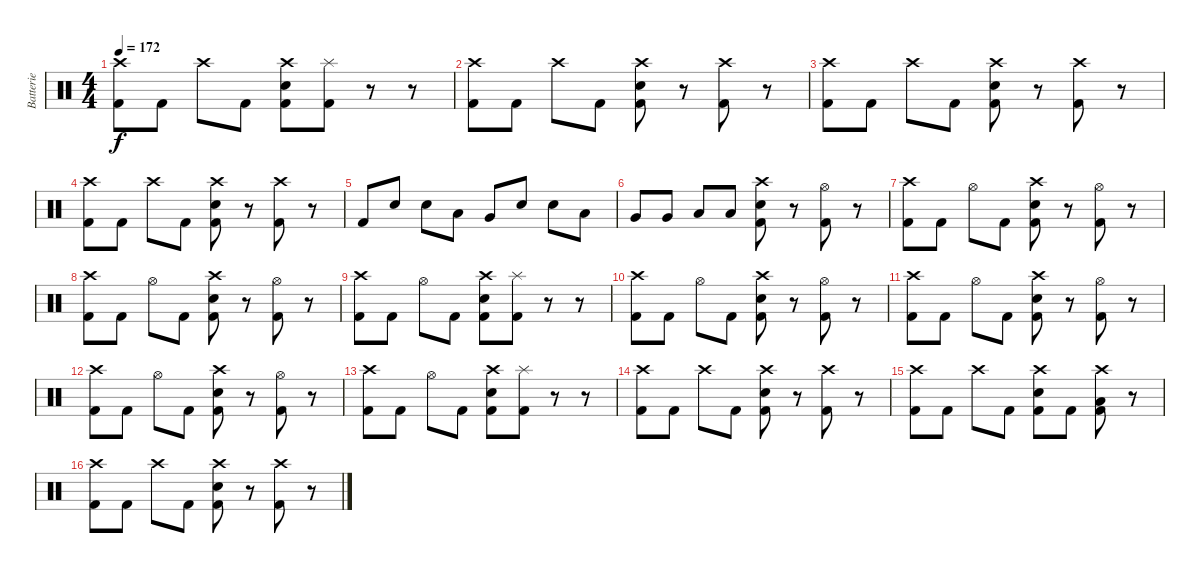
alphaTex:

\track ("Batterie" "Batterie") {instrument percussion}
\staff {score}
\articulation defaults
\ts (4 4)
\tempo 172
\clef neutral
\ks c
("Crash high (hit)" "Kick (hit) 2").8{dy f} "Kick (hit) 2".8 "Crash high (hit)".8 "Kick (hit) 2".8 ("Crash high (hit)" "Electric Snare (hit)" "Kick (hit) 2").8 ("Splash (hit)" "Kick (hit) 2").8 r.8 r.8 |
("Crash high (hit)" "Kick (hit) 2").8 "Kick (hit) 2".8 "Crash high (hit)".8 "Kick (hit) 2".8 ("Crash high (hit)" "Electric Snare (hit)" "Kick (hit) 2").8 r.8 ("Crash high (hit)" "Kick (hit) 2").8 r.8 |
("Crash high (hit)" "Kick (hit) 2").8 "Kick (hit) 2".8 "Crash high (hit)".8 "Kick (hit) 2".8 ("Crash high (hit)" "Electric Snare (hit)" "Kick (hit) 2").8 r.8 ("Crash high (hit)" "Kick (hit) 2").8 r.8 |
("Crash high (hit)" "Kick (hit) 2").8 "Kick (hit) 2".8 "Crash high (hit)".8 "Kick (hit) 2".8 ("Crash high (hit)" "Electric Snare (hit)" "Kick (hit) 2").8 r.8 ("Crash high (hit)" "Kick (hit) 2").8 r.8 |
"Kick (hit) 2".8 "Electric Snare (hit)".8 "Electric Snare (hit)".8 "Low Tom (hit)".8 "Very Low Tom (hit)".8 "Electric Snare (hit)".8 "Electric Snare (hit)".8 "Low Tom (hit)".8 |
"Very Low Tom (hit)".8 "Very Low Tom (hit)".8 "Low Floor Tom (hit)".8 "Low Floor Tom (hit)".8 ("Crash high (hit)" "Electric Snare (hit)" "Kick (hit) 2").8 r.8 ("Hi-Hat (open)" "Kick (hit) 2").8 r.8 |
("Crash high (hit)" "Kick (hit) 2").8 "Kick (hit) 2".8 "Hi-Hat (open)".8 "Kick (hit) 2".8 ("Crash high (hit)" "Electric Snare (hit)" "Kick (hit) 2").8 r.8 ("Hi-Hat (open)" "Kick (hit) 2").8 r.8 |
("Crash high (hit)" "Kick (hit) 2").8 "Kick (hit) 2".8 "Hi-Hat (open)".8 "Kick (hit) 2".8 ("Crash high (hit)" "Electric Snare (hit)" "Kick (hit) 2").8 r.8 ("Hi-Hat (open)" "Kick (hit) 2").8 r.8 |
("Crash high (hit)" "Kick (hit) 2").8 "Kick (hit) 2".8 "Hi-Hat (open)".8 "Kick (hit) 2".8 ("Crash high (hit)" "Electric Snare (hit)" "Kick (hit) 2").8 ("Splash (hit)" "Kick (hit) 2").8 r.8 r.8 |
("Crash high (hit)" "Kick (hit) 2").8 "Kick (hit) 2".8 "Hi-Hat (open)".8 "Kick (hit) 2".8 ("Crash high (hit)" "Electric Snare (hit)" "Kick (hit) 2").8 r.8 ("Hi-Hat (open)" "Kick (hit) 2").8 r.8 |
("Crash high (hit)" "Kick (hit) 2").8 "Kick (hit) 2".8 "Hi-Hat (open)".8 "Kick (hit) 2".8 ("Crash high (hit)" "Electric Snare (hit)" "Kick (hit) 2").8 r.8 ("Hi-Hat (open)" "Kick (hit) 2").8 r.8 |
("Crash high (hit)" "Kick (hit) 2").8 "Kick (hit) 2".8 "Hi-Hat (open)".8 "Kick (hit) 2".8 ("Crash high (hit)" "Electric Snare (hit)" "Kick (hit) 2").8 r.8 ("Hi-Hat (open)" "Kick (hit) 2").8 r.8 |
("Crash high (hit)" "Kick (hit) 2").8 "Kick (hit) 2".8 "Hi-Hat (open)".8 "Kick (hit) 2".8 ("Crash high (hit)" "Electric Snare (hit)" "Kick (hit) 2").8 ("Splash (hit)" "Kick (hit) 2").8 r.8 r.8 |
("Crash high (hit)" "Kick (hit) 2").8 "Kick (hit) 2".8 "Crash high (hit)".8 "Kick (hit) 2".8 ("Crash high (hit)" "Electric Snare (hit)" "Kick (hit) 2").8 r.8 ("Crash high (hit)" "Kick (hit) 2").8 r.8 |
("Crash high (hit)" "Kick (hit) 2").8 "Kick (hit) 2".8 "Crash high (hit)".8 "Kick (hit) 2".8 ("Crash high (hit)" "Electric Snare (hit)" "Kick (hit) 2").8 "Kick (hit) 2".8 ("Crash high (hit)" "Low Tom (hit)" "Kick (hit) 2").8 r.8 |
("Crash high (hit)" "Kick (hit) 2").8 "Kick (hit) 2".8 "Crash high (hit)".8 "Kick (hit) 2".8 ("Crash high (hit)" "Electric Snare (hit)" "Kick (hit) 2").8 r.8 ("Crash high (hit)" "Kick (hit) 2").8 r.8
